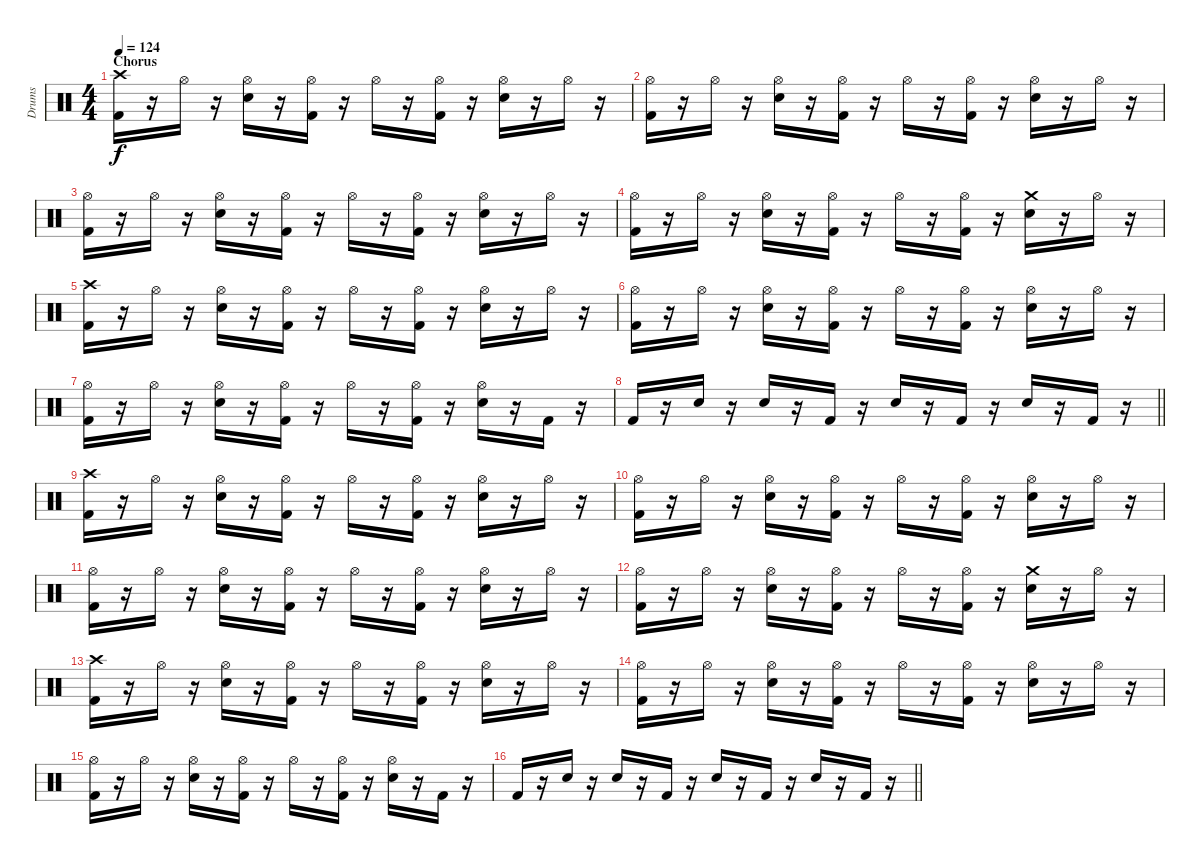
\track ("Drums" "Drums") {instrument percussion}
\staff {score}
\articulation defaults
\ts (4 4)
\section ("" "Chorus")
\tempo 124
\clef neutral
\ks c
("Crash high (hit)" "Kick (hit) 2").16{dy f} r.16 "Hi-Hat (open)".16 r.16 ("Hi-Hat (open)" "Snare (hit) 2").16 r.16 ("Hi-Hat (open)" "Kick (hit) 2").16 r.16 "Hi-Hat (open)".16 r.16 ("Hi-Hat (open)" "Kick (hit) 2").16 r.16 ("Hi-Hat (open)" "Snare (hit) 2").16 r.16 "Hi-Hat (open)".16 r.16 |
("Hi-Hat (open)" "Kick (hit) 2").16 r.16 "Hi-Hat (open)".16 r.16 ("Hi-Hat (open)" "Snare (hit) 2").16 r.16 ("Hi-Hat (open)" "Kick (hit) 2").16 r.16 "Hi-Hat (open)".16 r.16 ("Hi-Hat (open)" "Kick (hit) 2").16 r.16 ("Hi-Hat (open)" "Snare (hit) 2").16 r.16 "Hi-Hat (open)".16 r.16 |
("Hi-Hat (open)" "Kick (hit) 2").16 r.16 "Hi-Hat (open)".16 r.16 ("Hi-Hat (open)" "Snare (hit) 2").16 r.16 ("Hi-Hat (open)" "Kick (hit) 2").16 r.16 "Hi-Hat (open)".16 r.16 ("Hi-Hat (open)" "Kick (hit) 2").16 r.16 ("Hi-Hat (open)" "Snare (hit) 2").16 r.16 "Hi-Hat (open)".16 r.16 |
("Hi-Hat (open)" "Kick (hit) 2").16 r.16 "Hi-Hat (open)".16 r.16 ("Hi-Hat (open)" "Snare (hit) 2").16 r.16 ("Hi-Hat (open)" "Kick (hit) 2").16 r.16 "Hi-Hat (open)".16 r.16 ("Hi-Hat (open)" "Kick (hit) 2").16 r.16 ("Crash medium (hit)" "Snare (hit) 2").16 r.16 "Hi-Hat (open)".16 r.16 |
("Crash high (hit)" "Kick (hit) 2").16 r.16 "Hi-Hat (open)".16 r.16 ("Hi-Hat (open)" "Snare (hit) 2").16 r.16 ("Hi-Hat (open)" "Kick (hit) 2").16 r.16 "Hi-Hat (open)".16 r.16 ("Hi-Hat (open)" "Kick (hit) 2").16 r.16 ("Hi-Hat (open)" "Snare (hit) 2").16 r.16 "Hi-Hat (open)".16 r.16 |
("Hi-Hat (open)" "Kick (hit) 2").16 r.16 "Hi-Hat (open)".16 r.16 ("Hi-Hat (open)" "Snare (hit) 2").16 r.16 ("Hi-Hat (open)" "Kick (hit) 2").16 r.16 "Hi-Hat (open)".16 r.16 ("Hi-Hat (open)" "Kick (hit) 2").16 r.16 ("Hi-Hat (open)" "Snare (hit) 2").16 r.16 "Hi-Hat (open)".16 r.16 |
("Hi-Hat (open)" "Kick (hit) 2").16 r.16 "Hi-Hat (open)".16 r.16 ("Hi-Hat (open)" "Snare (hit) 2").16 r.16 ("Hi-Hat (open)" "Kick (hit) 2").16 r.16 "Hi-Hat (open)".16 r.16 ("Hi-Hat (open)" "Kick (hit) 2").16 r.16 ("Hi-Hat (open)" "Snare (hit) 2").16 r.16 "Kick (hit) 2".16 r.16 |
\barLineRight lightlight "Kick (hit) 2".16
r.16 "Snare (hit) 2".16 r.16 "Snare (hit) 2".16 r.16 "Kick (hit) 2".16 r.16 "Snare (hit) 2".16 r.16 "Kick (hit) 2".16 r.16 "Snare (hit) 2".16 r.16 "Kick (hit) 2".16 r.16 |
("Crash high (hit)" "Kick (hit) 2").16 r.16 "Hi-Hat (open)".16 r.16 ("Hi-Hat (open)" "Snare (hit) 2").16 r.16 ("Hi-Hat (open)" "Kick (hit) 2").16 r.16 "Hi-Hat (open)".16 r.16 ("Hi-Hat (open)" "Kick (hit) 2").16 r.16 ("Hi-Hat (open)" "Snare (hit) 2").16 r.16 "Hi-Hat (open)".16 r.16 |
("Hi-Hat (open)" "Kick (hit) 2").16 r.16 "Hi-Hat (open)".16 r.16 ("Hi-Hat (open)" "Snare (hit) 2").16 r.16 ("Hi-Hat (open)" "Kick (hit) 2").16 r.16 "Hi-Hat (open)".16 r.16 ("Hi-Hat (open)" "Kick (hit) 2").16 r.16 ("Hi-Hat (open)" "Snare (hit) 2").16 r.16 "Hi-Hat (open)".16 r.16 |
("Hi-Hat (open)" "Kick (hit) 2").16 r.16 "Hi-Hat (open)".16 r.16 ("Hi-Hat (open)" "Snare (hit) 2").16 r.16 ("Hi-Hat (open)" "Kick (hit) 2").16 r.16 "Hi-Hat (open)".16 r.16 ("Hi-Hat (open)" "Kick (hit) 2").16 r.16 ("Hi-Hat (open)" "Snare (hit) 2").16 r.16 "Hi-Hat (open)".16 r.16 |
("Hi-Hat (open)" "Kick (hit) 2").16 r.16 "Hi-Hat (open)".16 r.16 ("Hi-Hat (open)" "Snare (hit) 2").16 r.16 ("Hi-Hat (open)" "Kick (hit) 2").16 r.16 "Hi-Hat (open)".16 r.16 ("Hi-Hat (open)" "Kick (hit) 2").16 r.16 ("Crash medium (hit)" "Snare (hit) 2").16 r.16 "Hi-Hat (open)".16 r.16 |
("Crash high (hit)" "Kick (hit) 2").16 r.16 "Hi-Hat (open)".16 r.16 ("Hi-Hat (open)" "Snare (hit) 2").16 r.16 ("Hi-Hat (open)" "Kick (hit) 2").16 r.16 "Hi-Hat (open)".16 r.16 ("Hi-Hat (open)" "Kick (hit) 2").16 r.16 ("Hi-Hat (open)" "Snare (hit) 2").16 r.16 "Hi-Hat (open)".16 r.16 |
("Hi-Hat (open)" "Kick (hit) 2").16 r.16 "Hi-Hat (open)".16 r.16 ("Hi-Hat (open)" "Snare (hit) 2").16 r.16 ("Hi-Hat (open)" "Kick (hit) 2").16 r.16 "Hi-Hat (open)".16 r.16 ("Hi-Hat (open)" "Kick (hit) 2").16 r.16 ("Hi-Hat (open)" "Snare (hit) 2").16 r.16 "Hi-Hat (open)".16 r.16 |
("Hi-Hat (open)" "Kick (hit) 2").16 r.16 "Hi-Hat (open)".16 r.16 ("Hi-Hat (open)" "Snare (hit) 2").16 r.16 ("Hi-Hat (open)" "Kick (hit) 2").16 r.16 "Hi-Hat (open)".16 r.16 ("Hi-Hat (open)" "Kick (hit) 2").16 r.16 ("Hi-Hat (open)" "Snare (hit) 2").16 r.16 "Kick (hit) 2".16 r.16 |
\barLineRight lightlight "Kick (hit) 2".16
r.16 "Snare (hit) 2".16 r.16 "Snare (hit) 2".16 r.16 "Kick (hit) 2".16 r.16 "Snare (hit) 2".16 r.16 "Kick (hit) 2".16 r.16 "Snare (hit) 2".16 r.16 "Kick (hit) 2".16 r.16
